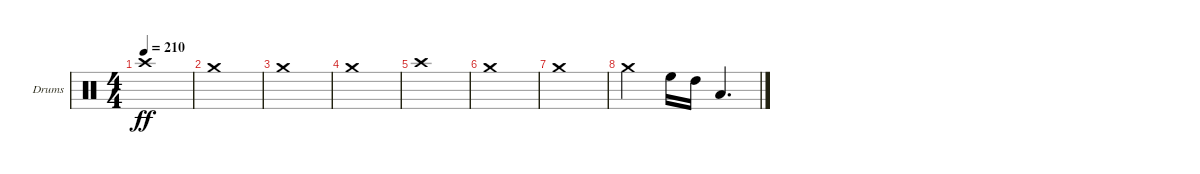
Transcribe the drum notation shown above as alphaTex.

\defaultSystemsLayout 4
\bracketExtendMode groupsimilarinstruments
\firstSystemTrackNameOrientation horizontal
\otherSystemsTrackNameOrientation horizontal
\track ("Drumkitovr" "Drums") {instrument percussion}
\staff {score}
\articulation defaults
\ts (4 4)
\tempo 210
\clef neutral
\scale
0.474178
\ks c "Crash high (hit)".1{dy ff}
|
\scale
0.262911 "Crash medium (hit)".1 |
\scale
0.262911 "Crash medium (hit)".1 |
\scale
0.333333 "Crash medium (hit)".1 |
\scale
0.333333 "Crash high (hit)".1 |
\scale
0.333333 "Crash medium (hit)".1 |
"Crash medium (hit)".1 |
"Crash medium (hit)".2 "High Floor Tom (hit)".16 "High Tom (hit)".16 "Low Tom (hit)".4{d}
